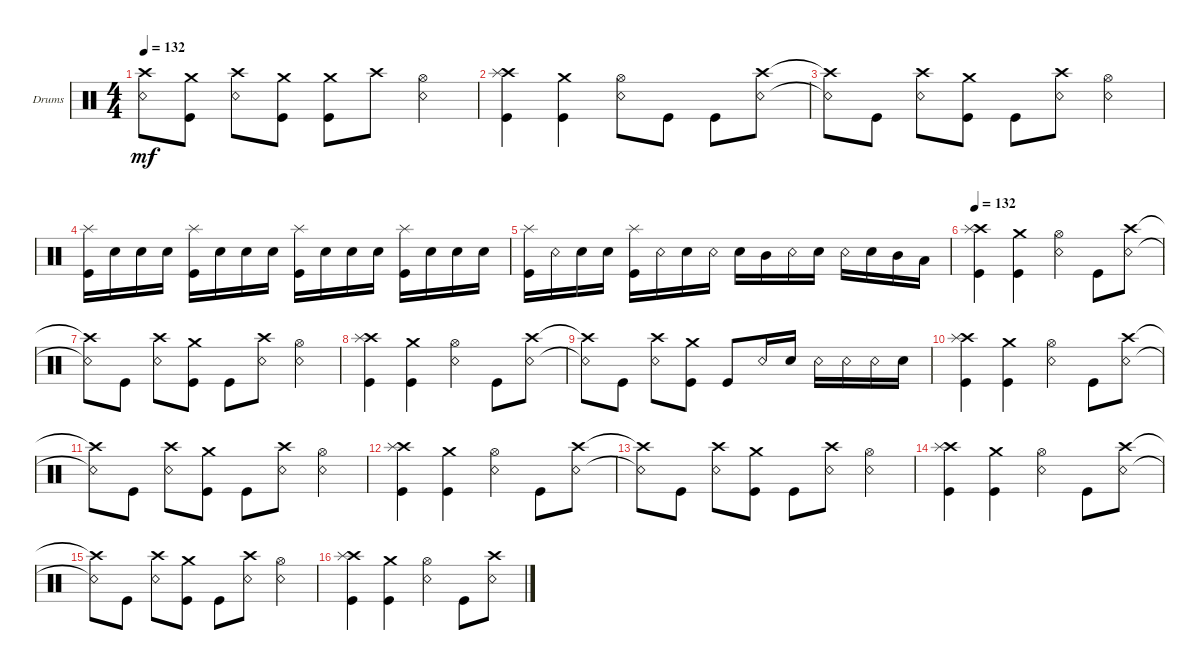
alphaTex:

\defaultSystemsLayout 4
\bracketExtendMode groupsimilarinstruments
\firstSystemTrackNameOrientation horizontal
\otherSystemsTrackNameOrientation horizontal
\track ("Drumkit" "Drums") {instrument percussion}
\staff {score}
\articulation defaults
\ts (4 4)
\tempo 132
\clef neutral
\ks c
("Crash high (hit)" "Snare (rim shot)").8{dy mf} ("Kick (hit)" "Crash medium (hit)").8 ("Snare (rim shot)" "Crash high (hit)").8 ("Kick (hit)" "Crash medium (hit)").8 ("Kick (hit)" "Crash medium (hit)").8 "Crash high (hit)".8 ("Snare (rim shot)" "Hi-Hat (open)").4 |
("Kick (hit)" "Crash high (hit)" "Splash (hit)").4 ("Crash medium (hit)" "Kick (hit)").4 ("Snare (rim shot)" "Hi-Hat (open)").8 "Kick (hit)".8 "Kick (hit)".8 ("Crash high (hit)" "Snare (rim shot)").8 |
("Crash high (hit)"{t} "Snare (rim shot)"{t}).8 "Kick (hit)".8 ("Crash high (hit)" "Snare (rim shot)").8 ("Kick (hit)" "Crash medium (hit)").8 "Kick (hit)".8 ("Crash high (hit)" "Snare (rim shot)").8 ("Snare (rim shot)" "Hi-Hat (open)").4 |
("Kick (hit)" "Splash (hit)").16 "Snare (hit) 2".16 "Snare (hit) 2".16 "Snare (hit) 2".16 ("Kick (hit)" "Splash (hit)").16 "Snare (hit) 2".16 "Snare (hit) 2".16 "Snare (hit) 2".16 ("Kick (hit)" "Splash (hit)").16 "Snare (hit) 2".16 "Snare (hit) 2".16 "Snare (hit) 2".16 ("Kick (hit)" "Splash (hit)").16 "Snare (hit) 2".16 "Snare (hit) 2".16 "Snare (hit) 2".16 |
("Kick (hit)" "Splash (hit)").16 "Snare (rim shot)".16 "Snare (hit) 2".16 "Snare (hit) 2".16 ("Kick (hit)" "Splash (hit)").16 "Snare (rim shot)".16 "Snare (hit) 2".16 "Snare (rim shot)".16 "Snare (hit) 2".16 "Mid Tom (hit)".16 "Snare (rim shot)".16 "Snare (hit) 2".16 "Snare (rim shot)".16 "Snare (hit) 2".16 "Mid Tom (hit)".16 "Low Tom (hit)".16 |
\tempo 132
("Kick (hit)" "Crash high (hit)" "Splash (hit)").4 ("Crash medium (hit)" "Kick (hit)").4 ("Snare (rim shot)" "Hi-Hat (open)").4 "Kick (hit)".8 ("Crash high (hit)" "Snare (rim shot)").8 |
("Crash high (hit)"{t} "Snare (rim shot)"{t}).8 "Kick (hit)".8 ("Crash high (hit)" "Snare (rim shot)").8 ("Kick (hit)" "Crash medium (hit)").8 "Kick (hit)".8 ("Crash high (hit)" "Snare (rim shot)").8 ("Snare (rim shot)" "Hi-Hat (open)").4 |
("Kick (hit)" "Crash high (hit)" "Splash (hit)").4 ("Crash medium (hit)" "Kick (hit)").4 ("Snare (rim shot)" "Hi-Hat (open)").4 "Kick (hit)".8 ("Crash high (hit)" "Snare (rim shot)").8 |
("Crash high (hit)"{t} "Snare (rim shot)"{t}).8 "Kick (hit)".8 ("Crash high (hit)" "Snare (rim shot)").8 ("Kick (hit)" "Crash medium (hit)").8 "Kick (hit)".8 "Snare (rim shot)".16 "Snare (hit) 2".16 "Snare (rim shot)".16 "Snare (rim shot)".16 "Snare (rim shot)".16 "Snare (hit) 2".16 |
("Kick (hit)" "Crash high (hit)" "Splash (hit)").4 ("Crash medium (hit)" "Kick (hit)").4 ("Snare (rim shot)" "Hi-Hat (open)").4 "Kick (hit)".8 ("Crash high (hit)" "Snare (rim shot)").8 |
("Crash high (hit)"{t} "Snare (rim shot)"{t}).8 "Kick (hit)".8 ("Crash high (hit)" "Snare (rim shot)").8 ("Kick (hit)" "Crash medium (hit)").8 "Kick (hit)".8 ("Crash high (hit)" "Snare (rim shot)").8 ("Snare (rim shot)" "Hi-Hat (open)").4 |
("Kick (hit)" "Crash high (hit)" "Splash (hit)").4 ("Crash medium (hit)" "Kick (hit)").4 ("Snare (rim shot)" "Hi-Hat (open)").4 "Kick (hit)".8 ("Crash high (hit)" "Snare (rim shot)").8 |
("Crash high (hit)"{t} "Snare (rim shot)"{t}).8 "Kick (hit)".8 ("Crash high (hit)" "Snare (rim shot)").8 ("Kick (hit)" "Crash medium (hit)").8 "Kick (hit)".8 ("Crash high (hit)" "Snare (rim shot)").8 ("Snare (rim shot)" "Hi-Hat (open)").4 |
("Kick (hit)" "Crash high (hit)" "Splash (hit)").4 ("Crash medium (hit)" "Kick (hit)").4 ("Snare (rim shot)" "Hi-Hat (open)").4 "Kick (hit)".8 ("Crash high (hit)" "Snare (rim shot)").8 |
("Crash high (hit)"{t} "Snare (rim shot)"{t}).8 "Kick (hit)".8 ("Crash high (hit)" "Snare (rim shot)").8 ("Kick (hit)" "Crash medium (hit)").8 "Kick (hit)".8 ("Crash high (hit)" "Snare (rim shot)").8 ("Snare (rim shot)" "Hi-Hat (open)").4 |
("Kick (hit)" "Crash high (hit)" "Splash (hit)").4 ("Crash medium (hit)" "Kick (hit)").4 ("Snare (rim shot)" "Hi-Hat (open)").4 "Kick (hit)".8 ("Crash high (hit)" "Snare (rim shot)").8
